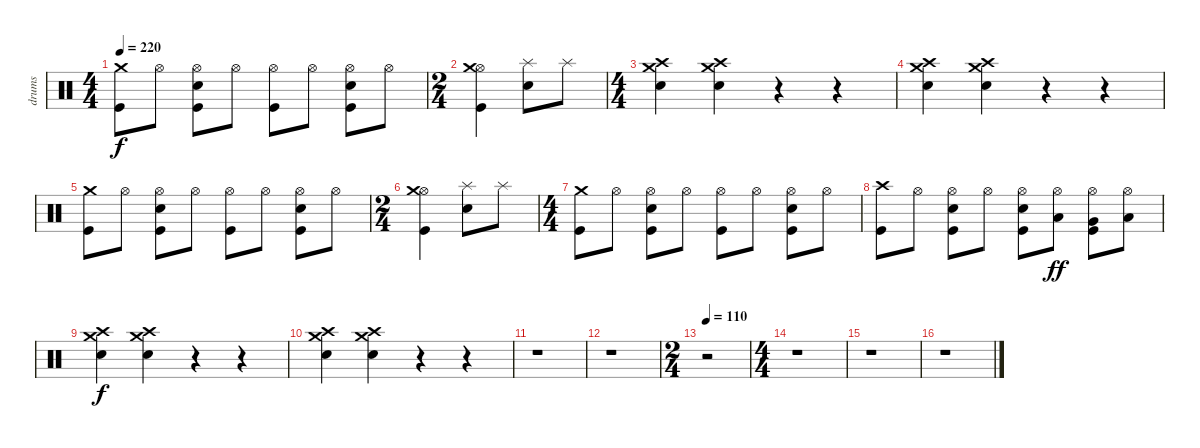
\track ("drums" "drums") {instrument percussion}
\staff {score}
\articulation defaults
\ts (4 4)
\tempo 220
\clef neutral
\ks c
("Crash medium (hit)" "Kick (hit)").8{dy f} "Hi-Hat (open)".8 ("Hi-Hat (open)" "Electric Snare (hit)" "Kick (hit)").8 "Hi-Hat (open)".8 ("Hi-Hat (open)" "Kick (hit)").8 "Hi-Hat (open)".8 ("Hi-Hat (open)" "Electric Snare (hit)" "Kick (hit)").8 "Hi-Hat (open)".8 |
\ts (2 4)
("Hi-Hat (open)" "Crash medium (hit)" "Kick (hit)").4 ("Splash (hit)" "Electric Snare (hit)").8 "Splash (hit)".8 |
\ts (4 4)
("Crash medium (hit)" "Crash high (hit)" "Electric Snare (hit)").4 ("Crash medium (hit)" "Crash high (hit)" "Electric Snare (hit)").4 r.4 r.4 |
("Crash medium (hit)" "Crash high (hit)" "Electric Snare (hit)").4 ("Crash medium (hit)" "Crash high (hit)" "Electric Snare (hit)").4 r.4 r.4 |
("Crash medium (hit)" "Kick (hit)").8 "Hi-Hat (open)".8 ("Hi-Hat (open)" "Electric Snare (hit)" "Kick (hit)").8 "Hi-Hat (open)".8 ("Hi-Hat (open)" "Kick (hit)").8 "Hi-Hat (open)".8 ("Hi-Hat (open)" "Electric Snare (hit)" "Kick (hit)").8 "Hi-Hat (open)".8 |
\ts (2 4)
("Hi-Hat (open)" "Crash medium (hit)" "Kick (hit)").4 ("Splash (hit)" "Electric Snare (hit)").8 "Splash (hit)".8 |
\ts (4 4)
("Crash medium (hit)" "Kick (hit)").8 "Hi-Hat (open)".8 ("Hi-Hat (open)" "Electric Snare (hit)" "Kick (hit)").8 "Hi-Hat (open)".8 ("Hi-Hat (open)" "Kick (hit)").8 "Hi-Hat (open)".8 ("Hi-Hat (open)" "Electric Snare (hit)" "Kick (hit)").8 "Hi-Hat (open)".8 |
("Crash high (hit)" "Kick (hit)").8 "Hi-Hat (open)".8 ("Hi-Hat (open)" "Electric Snare (hit)" "Kick (hit)").8 "Hi-Hat (open)".8 ("Hi-Hat (open)" "Electric Snare (hit)" "Kick (hit)").8 ("Hi-Hat (open)" "Low Floor Tom (hit)").8{dy ff} ("Hi-Hat (open)" "Very Low Tom (hit)" "Kick (hit)").8 ("Hi-Hat (open)" "Low Tom (hit)").8 |
("Crash medium (hit)" "Crash high (hit)" "Electric Snare (hit)").4{dy f} ("Crash medium (hit)" "Crash high (hit)" "Electric Snare (hit)").4 r.4 r.4 |
("Crash medium (hit)" "Crash high (hit)" "Electric Snare (hit)").4 ("Crash medium (hit)" "Crash high (hit)" "Electric Snare (hit)").4 r.4 r.4 |
r.1 |
r.1 |
\ts (2 4)
\tempo 110
r.2 |
\ts (4 4)
r.1 |
r.1 |
r.1
